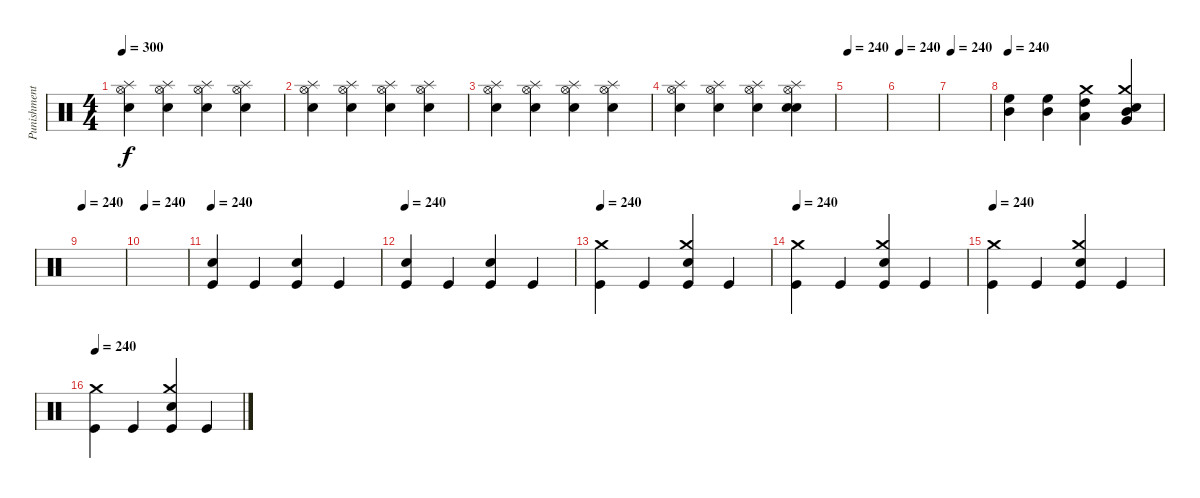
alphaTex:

\track ("Punishment" "Punishment") {instrument percussion}
\staff {score}
\articulation defaults
\ts (4 4)
\tempo 300
\clef neutral
\ks c
("Hi-Hat (open)" "Splash (hit)" "Electric Snare (hit)").4{dy f} ("Hi-Hat (open)" "Splash (hit)" "Electric Snare (hit)").4 ("Hi-Hat (open)" "Splash (hit)" "Electric Snare (hit)").4 ("Hi-Hat (open)" "Splash (hit)" "Electric Snare (hit)").4 |
("Hi-Hat (open)" "Splash (hit)" "Electric Snare (hit)").4 ("Hi-Hat (open)" "Splash (hit)" "Electric Snare (hit)").4 ("Hi-Hat (open)" "Splash (hit)" "Electric Snare (hit)").4 ("Hi-Hat (open)" "Splash (hit)" "Electric Snare (hit)").4 |
("Hi-Hat (open)" "Splash (hit)" "Electric Snare (hit)").4 ("Hi-Hat (open)" "Splash (hit)" "Electric Snare (hit)").4 ("Hi-Hat (open)" "Splash (hit)" "Electric Snare (hit)").4 ("Hi-Hat (open)" "Splash (hit)" "Electric Snare (hit)").4 |
("Hi-Hat (open)" "Splash (hit)" "Electric Snare (hit)").4 ("Hi-Hat (open)" "Splash (hit)" "Electric Snare (hit)").4 ("Hi-Hat (open)" "Splash (hit)" "Electric Snare (hit)").4 ("Hi-Hat (open)" "Splash (hit)" "Electric Snare (hit)" "Snare (hit)").4 |
\tempo 240
|
\tempo 240
|
\tempo 240
|
\tempo 240
("High Floor Tom (hit)" "Mid Tom (hit)").4 ("High Floor Tom (hit)" "Mid Tom (hit)").4 ("Crash medium (hit)" "High Tom (hit)" "Low Tom (hit)").4 ("Electric Snare (hit)" "Mid Tom (hit)" "Very Low Tom (hit)" "Crash medium (hit)").4 |
\tempo 240
|
\tempo 240
|
\tempo 240
("Kick (hit)" "Electric Snare (hit)").4 "Kick (hit)".4 ("Kick (hit)" "Electric Snare (hit)").4 "Kick (hit)".4 |
\tempo 240
("Kick (hit)" "Electric Snare (hit)").4 "Kick (hit)".4 ("Kick (hit)" "Electric Snare (hit)").4 "Kick (hit)".4 |
\tempo 300
\tempo 240
("Crash medium (hit)" "Kick (hit)").4 "Kick (hit)".4 ("Crash medium (hit)" "Electric Snare (hit)" "Kick (hit)").4 "Kick (hit)".4 |
\tempo 240
("Crash medium (hit)" "Kick (hit)").4 "Kick (hit)".4 ("Crash medium (hit)" "Electric Snare (hit)" "Kick (hit)").4 "Kick (hit)".4 |
\tempo 240
("Crash medium (hit)" "Kick (hit)").4 "Kick (hit)".4 ("Crash medium (hit)" "Electric Snare (hit)" "Kick (hit)").4 "Kick (hit)".4 |
\tempo 240
("Crash medium (hit)" "Kick (hit)").4 "Kick (hit)".4 ("Crash medium (hit)" "Electric Snare (hit)" "Kick (hit)").4 "Kick (hit)".4
